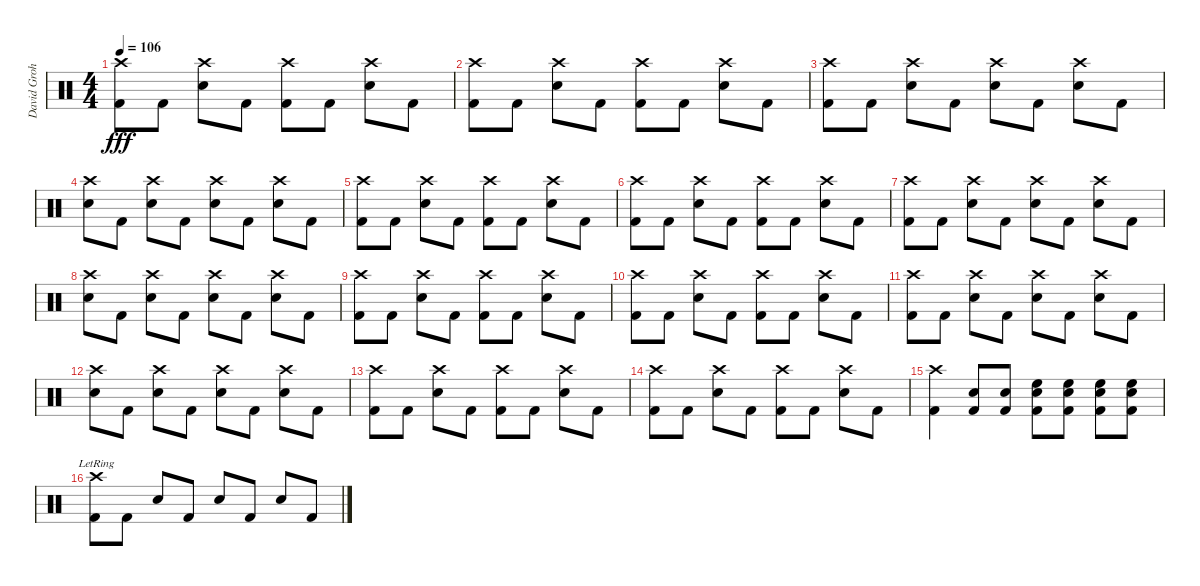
\track ("David Grohl 2 Crash Style !!" "David Groh") {instrument percussion}
\staff {score}
\articulation defaults
\ts (4 4)
\tempo 106
\clef neutral
\ks c
("Crash high (hit)" "Kick (hit) 2").8{dy fff} "Kick (hit) 2".8 ("Crash high (hit)" "Snare (hit) 2").8 "Kick (hit) 2".8 ("Crash high (hit)" "Kick (hit) 2").8 "Kick (hit) 2".8 ("Crash high (hit)" "Snare (hit) 2").8 "Kick (hit) 2".8 |
("Crash high (hit)" "Kick (hit) 2").8 "Kick (hit) 2".8 ("Crash high (hit)" "Snare (hit) 2").8 "Kick (hit) 2".8 ("Crash high (hit)" "Kick (hit) 2").8 "Kick (hit) 2".8 ("Crash high (hit)" "Snare (hit) 2").8 "Kick (hit) 2".8 |
("Crash high (hit)" "Kick (hit) 2").8 "Kick (hit) 2".8 ("Crash high (hit)" "Snare (hit) 2").8 "Kick (hit) 2".8 ("Crash high (hit)" "Snare (hit) 2").8 "Kick (hit) 2".8 ("Crash high (hit)" "Snare (hit) 2").8 "Kick (hit) 2".8 |
("Crash high (hit)" "Snare (hit) 2").8 "Kick (hit) 2".8 ("Crash high (hit)" "Snare (hit) 2").8 "Kick (hit) 2".8 ("Crash high (hit)" "Snare (hit) 2").8 "Kick (hit) 2".8 ("Crash high (hit)" "Snare (hit) 2").8 "Kick (hit) 2".8 |
("Crash high (hit)" "Kick (hit) 2").8 "Kick (hit) 2".8 ("Crash high (hit)" "Snare (hit) 2").8 "Kick (hit) 2".8 ("Crash high (hit)" "Kick (hit) 2").8 "Kick (hit) 2".8 ("Crash high (hit)" "Snare (hit) 2").8 "Kick (hit) 2".8 |
("Crash high (hit)" "Kick (hit) 2").8 "Kick (hit) 2".8 ("Crash high (hit)" "Snare (hit) 2").8 "Kick (hit) 2".8 ("Crash high (hit)" "Kick (hit) 2").8 "Kick (hit) 2".8 ("Crash high (hit)" "Snare (hit) 2").8 "Kick (hit) 2".8 |
("Crash high (hit)" "Kick (hit) 2").8 "Kick (hit) 2".8 ("Crash high (hit)" "Snare (hit) 2").8 "Kick (hit) 2".8 ("Crash high (hit)" "Snare (hit) 2").8 "Kick (hit) 2".8 ("Crash high (hit)" "Snare (hit) 2").8 "Kick (hit) 2".8 |
("Crash high (hit)" "Snare (hit) 2").8 "Kick (hit) 2".8 ("Crash high (hit)" "Snare (hit) 2").8 "Kick (hit) 2".8 ("Crash high (hit)" "Snare (hit) 2").8 "Kick (hit) 2".8 ("Crash high (hit)" "Snare (hit) 2").8 "Kick (hit) 2".8 |
("Crash high (hit)" "Kick (hit) 2").8 "Kick (hit) 2".8 ("Crash high (hit)" "Snare (hit) 2").8 "Kick (hit) 2".8 ("Crash high (hit)" "Kick (hit) 2").8 "Kick (hit) 2".8 ("Crash high (hit)" "Snare (hit) 2").8 "Kick (hit) 2".8 |
("Crash high (hit)" "Kick (hit) 2").8 "Kick (hit) 2".8 ("Crash high (hit)" "Snare (hit) 2").8 "Kick (hit) 2".8 ("Crash high (hit)" "Kick (hit) 2").8 "Kick (hit) 2".8 ("Crash high (hit)" "Snare (hit) 2").8 "Kick (hit) 2".8 |
("Crash high (hit)" "Kick (hit) 2").8 "Kick (hit) 2".8 ("Crash high (hit)" "Snare (hit) 2").8 "Kick (hit) 2".8 ("Crash high (hit)" "Snare (hit) 2").8 "Kick (hit) 2".8 ("Crash high (hit)" "Snare (hit) 2").8 "Kick (hit) 2".8 |
("Crash high (hit)" "Snare (hit) 2").8 "Kick (hit) 2".8 ("Crash high (hit)" "Snare (hit) 2").8 "Kick (hit) 2".8 ("Crash high (hit)" "Snare (hit) 2").8 "Kick (hit) 2".8 ("Crash high (hit)" "Snare (hit) 2").8 "Kick (hit) 2".8 |
("Crash high (hit)" "Kick (hit) 2").8 "Kick (hit) 2".8 ("Crash high (hit)" "Snare (hit) 2").8 "Kick (hit) 2".8 ("Crash high (hit)" "Kick (hit) 2").8 "Kick (hit) 2".8 ("Crash high (hit)" "Snare (hit) 2").8 "Kick (hit) 2".8 |
("Crash high (hit)" "Kick (hit) 2").8 "Kick (hit) 2".8 ("Crash high (hit)" "Snare (hit) 2").8 "Kick (hit) 2".8 ("Crash high (hit)" "Kick (hit) 2").8 "Kick (hit) 2".8 ("Crash high (hit)" "Snare (hit) 2").8 "Kick (hit) 2".8 |
("Crash high (hit)" "Kick (hit) 2").4 ("Snare (hit) 2" "Kick (hit) 2").8 ("Snare (hit) 2" "Kick (hit) 2").8 ("High Floor Tom (hit)" "Snare (hit) 2" "Kick (hit) 2").8 ("High Floor Tom (hit)" "Snare (hit) 2" "Kick (hit) 2").8 ("High Floor Tom (hit)" "Snare (hit) 2" "Kick (hit) 2").8 ("High Floor Tom (hit)" "Snare (hit) 2" "Kick (hit) 2").8 |
("Crash high (hit)"{lr} "Kick (hit) 2").8 "Kick (hit) 2".8 "Snare (hit) 2".8 "Kick (hit) 2".8 "Snare (hit) 2".8 "Kick (hit) 2".8 "Snare (hit) 2".8 "Kick (hit) 2".8
